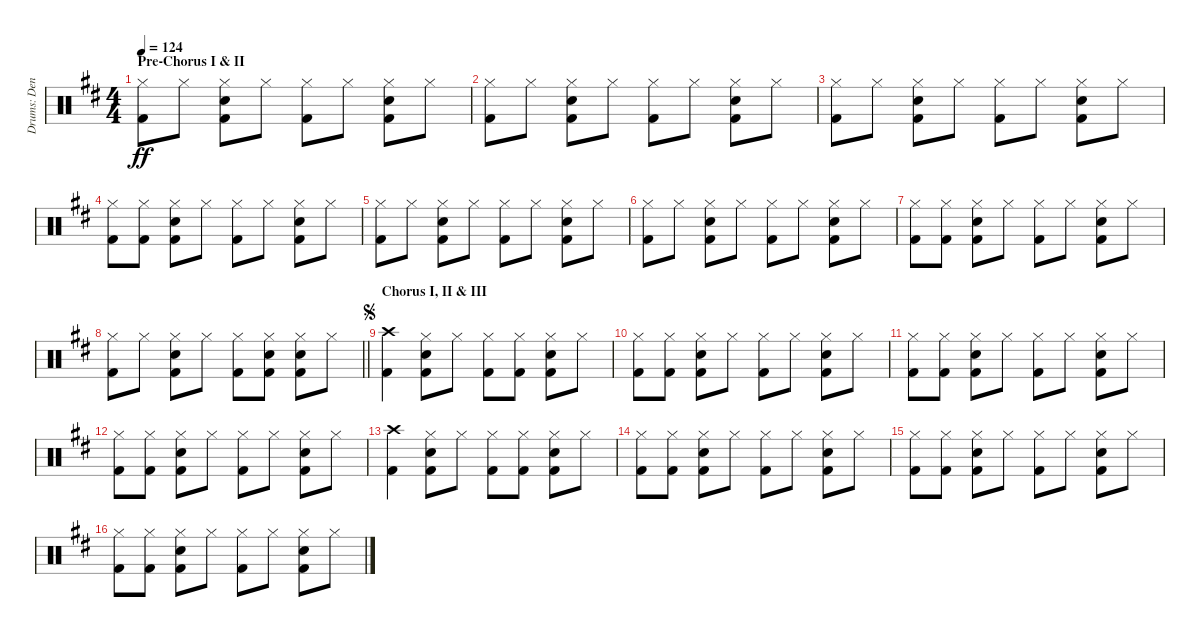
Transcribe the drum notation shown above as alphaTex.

\track ("Drums: Denny" "Drums: Den") {instrument percussion}
\staff {score}
\articulation defaults
\ts (4 4)
\section ("" "Pre-Chorus I & II")
\tempo 124
\clef neutral
\ks d
("Hi-Hat (closed)" "Kick (hit) 2").8{dy ff} "Hi-Hat (closed)".8 ("Hi-Hat (closed)" "Snare (hit) 2" "Kick (hit) 2").8 "Hi-Hat (closed)".8 ("Hi-Hat (closed)" "Kick (hit) 2").8 "Hi-Hat (closed)".8 ("Hi-Hat (closed)" "Snare (hit) 2" "Kick (hit) 2").8 "Hi-Hat (closed)".8 |
("Hi-Hat (closed)" "Kick (hit) 2").8 "Hi-Hat (closed)".8 ("Hi-Hat (closed)" "Snare (hit) 2" "Kick (hit) 2").8 "Hi-Hat (closed)".8 ("Hi-Hat (closed)" "Kick (hit) 2").8 "Hi-Hat (closed)".8 ("Hi-Hat (closed)" "Snare (hit) 2" "Kick (hit) 2").8 "Hi-Hat (closed)".8 |
("Hi-Hat (closed)" "Kick (hit) 2").8 "Hi-Hat (closed)".8 ("Hi-Hat (closed)" "Snare (hit) 2" "Kick (hit) 2").8 "Hi-Hat (closed)".8 ("Hi-Hat (closed)" "Kick (hit) 2").8 "Hi-Hat (closed)".8 ("Hi-Hat (closed)" "Snare (hit) 2" "Kick (hit) 2").8 "Hi-Hat (closed)".8 |
("Hi-Hat (closed)" "Kick (hit) 2").8 ("Hi-Hat (closed)" "Kick (hit) 2").8 ("Hi-Hat (closed)" "Snare (hit) 2" "Kick (hit) 2").8 "Hi-Hat (closed)".8 ("Hi-Hat (closed)" "Kick (hit) 2").8 "Hi-Hat (closed)".8 ("Hi-Hat (closed)" "Snare (hit) 2" "Kick (hit) 2").8 "Hi-Hat (closed)".8 |
("Hi-Hat (closed)" "Kick (hit) 2").8 "Hi-Hat (closed)".8 ("Hi-Hat (closed)" "Snare (hit) 2" "Kick (hit) 2").8 "Hi-Hat (closed)".8 ("Hi-Hat (closed)" "Kick (hit) 2").8 "Hi-Hat (closed)".8 ("Hi-Hat (closed)" "Snare (hit) 2" "Kick (hit) 2").8 "Hi-Hat (closed)".8 |
("Hi-Hat (closed)" "Kick (hit) 2").8 "Hi-Hat (closed)".8 ("Hi-Hat (closed)" "Snare (hit) 2" "Kick (hit) 2").8 "Hi-Hat (closed)".8 ("Hi-Hat (closed)" "Kick (hit) 2").8 "Hi-Hat (closed)".8 ("Hi-Hat (closed)" "Snare (hit) 2" "Kick (hit) 2").8 "Hi-Hat (closed)".8 |
("Hi-Hat (closed)" "Kick (hit) 2").8 ("Hi-Hat (closed)" "Kick (hit) 2").8 ("Hi-Hat (closed)" "Snare (hit) 2" "Kick (hit) 2").8 "Hi-Hat (closed)".8 ("Hi-Hat (closed)" "Kick (hit) 2").8 "Hi-Hat (closed)".8 ("Hi-Hat (closed)" "Snare (hit) 2" "Kick (hit) 2").8 "Hi-Hat (closed)".8 |
\barLineRight lightlight
("Hi-Hat (closed)" "Kick (hit) 2").8 "Hi-Hat (closed)".8 ("Hi-Hat (closed)" "Snare (hit) 2" "Kick (hit) 2").8 "Hi-Hat (closed)".8 ("Hi-Hat (closed)" "Kick (hit) 2").8 ("Hi-Hat (closed)" "Snare (hit) 2" "Kick (hit) 2").8 ("Hi-Hat (closed)" "Snare (hit) 2" "Kick (hit) 2").8 "Hi-Hat (closed)".8 |
\section ("" "Chorus I, II & III")
\jump segno
("Crash high (hit)" "Kick (hit) 2").4 ("Hi-Hat (closed)" "Snare (hit) 2" "Kick (hit) 2").8 "Hi-Hat (closed)".8 ("Hi-Hat (closed)" "Kick (hit) 2").8 ("Hi-Hat (closed)" "Kick (hit) 2").8 ("Hi-Hat (closed)" "Snare (hit) 2" "Kick (hit) 2").8 "Hi-Hat (closed)".8 |
("Hi-Hat (closed)" "Kick (hit) 2").8 ("Hi-Hat (closed)" "Kick (hit) 2").8 ("Hi-Hat (closed)" "Snare (hit) 2" "Kick (hit) 2").8 "Hi-Hat (closed)".8 ("Hi-Hat (closed)" "Kick (hit) 2").8 "Hi-Hat (closed)".8 ("Hi-Hat (closed)" "Snare (hit) 2" "Kick (hit) 2").8 "Hi-Hat (closed)".8 |
("Hi-Hat (closed)" "Kick (hit) 2").8 ("Hi-Hat (closed)" "Kick (hit) 2").8 ("Hi-Hat (closed)" "Snare (hit) 2" "Kick (hit) 2").8 "Hi-Hat (closed)".8 ("Hi-Hat (closed)" "Kick (hit) 2").8 "Hi-Hat (closed)".8 ("Hi-Hat (closed)" "Snare (hit) 2" "Kick (hit) 2").8 "Hi-Hat (closed)".8 |
("Hi-Hat (closed)" "Kick (hit) 2").8 ("Hi-Hat (closed)" "Kick (hit) 2").8 ("Hi-Hat (closed)" "Snare (hit) 2" "Kick (hit) 2").8 "Hi-Hat (closed)".8 ("Hi-Hat (closed)" "Kick (hit) 2").8 "Hi-Hat (closed)".8 ("Hi-Hat (closed)" "Snare (hit) 2" "Kick (hit) 2").8 "Hi-Hat (closed)".8 |
("Crash high (hit)" "Kick (hit) 2").4 ("Hi-Hat (closed)" "Snare (hit) 2" "Kick (hit) 2").8 "Hi-Hat (closed)".8 ("Hi-Hat (closed)" "Kick (hit) 2").8 ("Hi-Hat (closed)" "Kick (hit) 2").8 ("Hi-Hat (closed)" "Snare (hit) 2" "Kick (hit) 2").8 "Hi-Hat (closed)".8 |
("Hi-Hat (closed)" "Kick (hit) 2").8 ("Hi-Hat (closed)" "Kick (hit) 2").8 ("Hi-Hat (closed)" "Snare (hit) 2" "Kick (hit) 2").8 "Hi-Hat (closed)".8 ("Hi-Hat (closed)" "Kick (hit) 2").8 "Hi-Hat (closed)".8 ("Hi-Hat (closed)" "Snare (hit) 2" "Kick (hit) 2").8 "Hi-Hat (closed)".8 |
("Hi-Hat (closed)" "Kick (hit) 2").8 ("Hi-Hat (closed)" "Kick (hit) 2").8 ("Hi-Hat (closed)" "Snare (hit) 2" "Kick (hit) 2").8 "Hi-Hat (closed)".8 ("Hi-Hat (closed)" "Kick (hit) 2").8 "Hi-Hat (closed)".8 ("Hi-Hat (closed)" "Snare (hit) 2" "Kick (hit) 2").8 "Hi-Hat (closed)".8 |
("Hi-Hat (closed)" "Kick (hit) 2").8 ("Hi-Hat (closed)" "Kick (hit) 2").8 ("Hi-Hat (closed)" "Snare (hit) 2" "Kick (hit) 2").8 "Hi-Hat (closed)".8 ("Hi-Hat (closed)" "Kick (hit) 2").8 "Hi-Hat (closed)".8 ("Hi-Hat (closed)" "Snare (hit) 2" "Kick (hit) 2").8 "Hi-Hat (closed)".8
